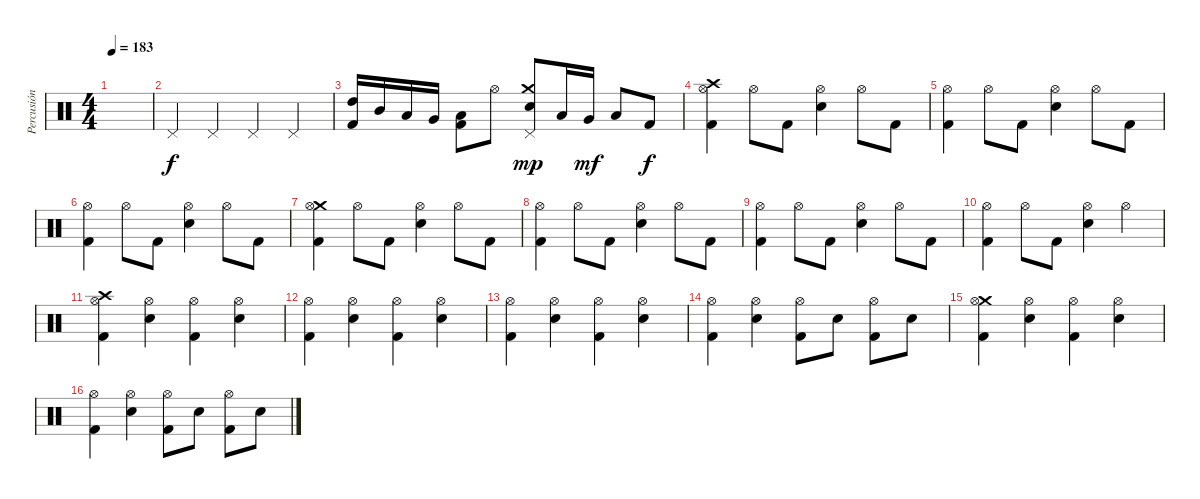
\track ("Percusión" "Percusión") {instrument percussion}
\staff {score}
\articulation defaults
\ts (4 4)
\tempo 183
\clef neutral
\ks c
|
"Pedal Hi-Hat (hit)".4 "Pedal Hi-Hat (hit)".4 "Pedal Hi-Hat (hit)".4 "Pedal Hi-Hat (hit)".4 |
("High Tom (hit)" "Kick (hit) 2").16 "Mid Tom (hit)".16 "Low Tom (hit)".16 "Very Low Tom (hit)".16 ("Low Floor Tom (hit)" "Kick (hit) 2").8 "Hi-Hat (open)".8 ("Crash medium (hit)" "Pedal Hi-Hat (hit)" "Electric Snare (hit)").8{dy mp} "Low Tom (hit)".16 "Very Low Tom (hit)".16{dy mf} "Low Floor Tom (hit)".8 "Kick (hit) 2".8{dy f} |
("Crash high (hit)" "Hi-Hat (open)" "Kick (hit) 2").4 "Hi-Hat (open)".8 "Kick (hit) 2".8 ("Hi-Hat (open)" "Electric Snare (hit)").4 "Hi-Hat (open)".8 "Kick (hit) 2".8 |
("Hi-Hat (open)" "Kick (hit) 2").4 "Hi-Hat (open)".8 "Kick (hit) 2".8 ("Hi-Hat (open)" "Electric Snare (hit)").4 "Hi-Hat (open)".8 "Kick (hit) 2".8 |
("Hi-Hat (open)" "Kick (hit) 2").4 "Hi-Hat (open)".8 "Kick (hit) 2".8 ("Hi-Hat (open)" "Electric Snare (hit)").4 "Hi-Hat (open)".8 "Kick (hit) 2".8 |
("Crash medium (hit)" "Hi-Hat (open)" "Kick (hit) 2").4 "Hi-Hat (open)".8 "Kick (hit) 2".8 ("Hi-Hat (open)" "Electric Snare (hit)").4 "Hi-Hat (open)".8 "Kick (hit) 2".8 |
("Hi-Hat (open)" "Kick (hit) 2").4 "Hi-Hat (open)".8 "Kick (hit) 2".8 ("Hi-Hat (open)" "Electric Snare (hit)").4 "Hi-Hat (open)".8 "Kick (hit) 2".8 |
("Hi-Hat (open)" "Kick (hit) 2").4 "Hi-Hat (open)".8 "Kick (hit) 2".8 ("Hi-Hat (open)" "Electric Snare (hit)").4 "Hi-Hat (open)".8 "Kick (hit) 2".8 |
("Hi-Hat (open)" "Kick (hit) 2").4 "Hi-Hat (open)".8 "Kick (hit) 2".8 ("Hi-Hat (open)" "Electric Snare (hit)").4 "Hi-Hat (open)".4 |
("Crash high (hit)" "Hi-Hat (open)" "Kick (hit) 2").4 ("Hi-Hat (open)" "Electric Snare (hit)").4 ("Hi-Hat (open)" "Kick (hit) 2").4 ("Hi-Hat (open)" "Electric Snare (hit)").4 |
("Hi-Hat (open)" "Kick (hit) 2").4 ("Hi-Hat (open)" "Electric Snare (hit)").4 ("Hi-Hat (open)" "Kick (hit) 2").4 ("Hi-Hat (open)" "Electric Snare (hit)").4 |
("Hi-Hat (open)" "Kick (hit) 2").4 ("Hi-Hat (open)" "Electric Snare (hit)").4 ("Hi-Hat (open)" "Kick (hit) 2").4 ("Hi-Hat (open)" "Electric Snare (hit)").4 |
("Hi-Hat (open)" "Kick (hit) 2").4 ("Hi-Hat (open)" "Electric Snare (hit)").4 ("Hi-Hat (open)" "Kick (hit) 2").8 "Electric Snare (hit)".8 ("Hi-Hat (open)" "Kick (hit) 2").8 "Electric Snare (hit)".8 |
("Crash medium (hit)" "Hi-Hat (open)" "Kick (hit) 2").4 ("Hi-Hat (open)" "Electric Snare (hit)").4 ("Hi-Hat (open)" "Kick (hit) 2").4 ("Hi-Hat (open)" "Electric Snare (hit)").4 |
("Hi-Hat (open)" "Kick (hit) 2").4 ("Hi-Hat (open)" "Electric Snare (hit)").4 ("Hi-Hat (open)" "Kick (hit) 2").8 "Electric Snare (hit)".8 ("Hi-Hat (open)" "Kick (hit) 2").8 "Electric Snare (hit)".8
